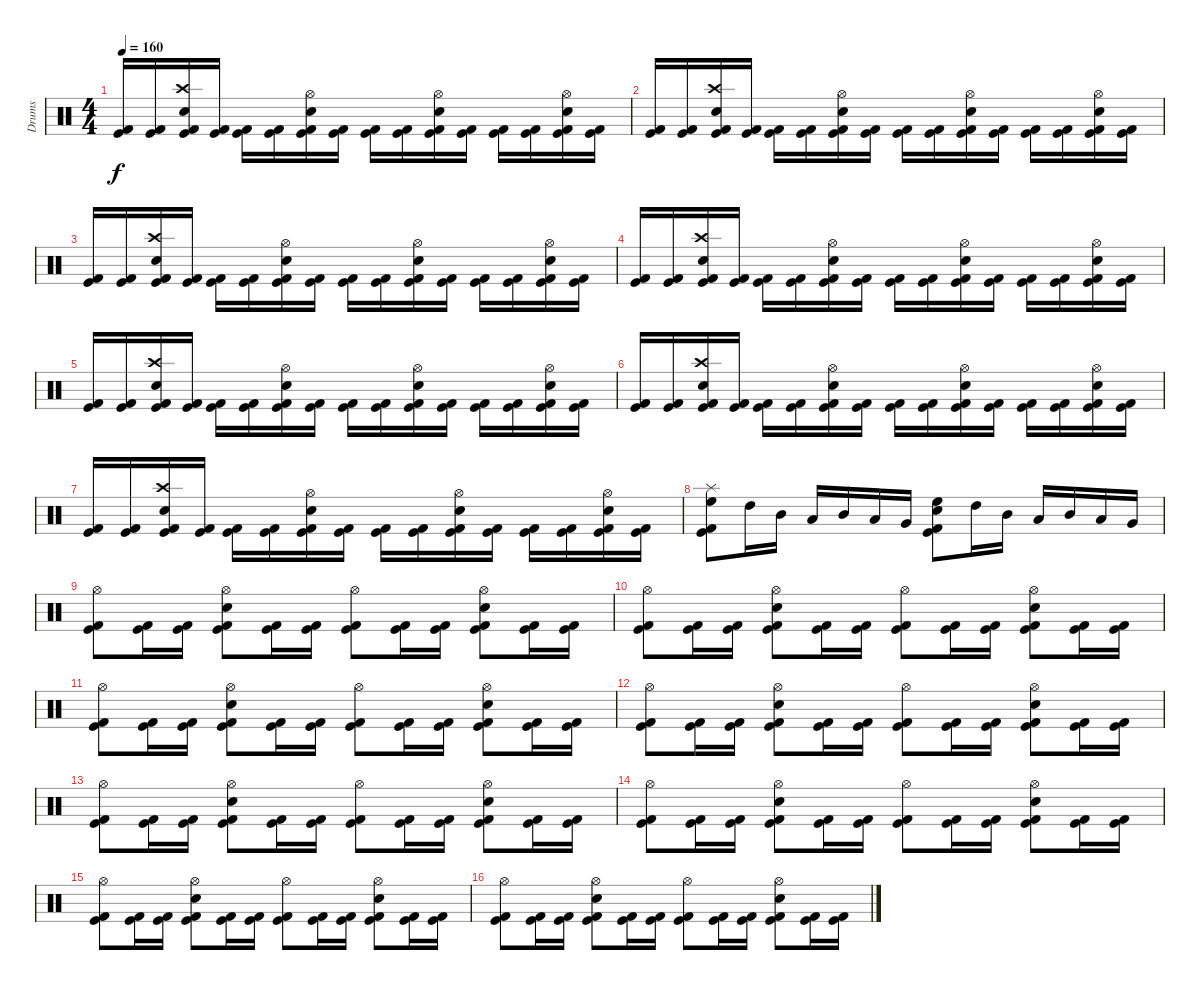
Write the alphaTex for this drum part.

\track ("Drums" "Drums") {instrument percussion}
\staff {score}
\articulation defaults
\ts (4 4)
\tempo 160
\clef neutral
\ks c
("Kick (hit) 2" "Kick (hit)").16{dy f} ("Kick (hit) 2" "Kick (hit)").16 ("Kick (hit) 2" "Kick (hit)" "Crash high (hit)" "Snare (hit) 2").16 ("Kick (hit) 2" "Kick (hit)").16 ("Kick (hit) 2" "Kick (hit)").16 ("Kick (hit) 2" "Kick (hit)").16 ("Kick (hit) 2" "Kick (hit)" "Hi-Hat (open)" "Snare (hit) 2").16 ("Kick (hit) 2" "Kick (hit)").16 ("Kick (hit) 2" "Kick (hit)").16 ("Kick (hit) 2" "Kick (hit)").16 ("Kick (hit) 2" "Kick (hit)" "Hi-Hat (open)" "Snare (hit) 2").16 ("Kick (hit) 2" "Kick (hit)").16 ("Kick (hit) 2" "Kick (hit)").16 ("Kick (hit) 2" "Kick (hit)").16 ("Kick (hit) 2" "Kick (hit)" "Hi-Hat (open)" "Snare (hit) 2").16 ("Kick (hit) 2" "Kick (hit)").16 |
("Kick (hit) 2" "Kick (hit)").16 ("Kick (hit) 2" "Kick (hit)").16 ("Kick (hit) 2" "Kick (hit)" "Crash high (hit)" "Snare (hit) 2").16 ("Kick (hit) 2" "Kick (hit)").16 ("Kick (hit) 2" "Kick (hit)").16 ("Kick (hit) 2" "Kick (hit)").16 ("Kick (hit) 2" "Kick (hit)" "Hi-Hat (open)" "Snare (hit) 2").16 ("Kick (hit) 2" "Kick (hit)").16 ("Kick (hit) 2" "Kick (hit)").16 ("Kick (hit) 2" "Kick (hit)").16 ("Kick (hit) 2" "Kick (hit)" "Hi-Hat (open)" "Snare (hit) 2").16 ("Kick (hit) 2" "Kick (hit)").16 ("Kick (hit) 2" "Kick (hit)").16 ("Kick (hit) 2" "Kick (hit)").16 ("Kick (hit) 2" "Kick (hit)" "Hi-Hat (open)" "Snare (hit) 2").16 ("Kick (hit) 2" "Kick (hit)").16 |
("Kick (hit) 2" "Kick (hit)").16 ("Kick (hit) 2" "Kick (hit)").16 ("Kick (hit) 2" "Kick (hit)" "Crash high (hit)" "Snare (hit) 2").16 ("Kick (hit) 2" "Kick (hit)").16 ("Kick (hit) 2" "Kick (hit)").16 ("Kick (hit) 2" "Kick (hit)").16 ("Kick (hit) 2" "Kick (hit)" "Hi-Hat (open)" "Snare (hit) 2").16 ("Kick (hit) 2" "Kick (hit)").16 ("Kick (hit) 2" "Kick (hit)").16 ("Kick (hit) 2" "Kick (hit)").16 ("Kick (hit) 2" "Kick (hit)" "Hi-Hat (open)" "Snare (hit) 2").16 ("Kick (hit) 2" "Kick (hit)").16 ("Kick (hit) 2" "Kick (hit)").16 ("Kick (hit) 2" "Kick (hit)").16 ("Kick (hit) 2" "Kick (hit)" "Hi-Hat (open)" "Snare (hit) 2").16 ("Kick (hit) 2" "Kick (hit)").16 |
("Kick (hit) 2" "Kick (hit)").16 ("Kick (hit) 2" "Kick (hit)").16 ("Kick (hit) 2" "Kick (hit)" "Crash high (hit)" "Snare (hit) 2").16 ("Kick (hit) 2" "Kick (hit)").16 ("Kick (hit) 2" "Kick (hit)").16 ("Kick (hit) 2" "Kick (hit)").16 ("Kick (hit) 2" "Kick (hit)" "Hi-Hat (open)" "Snare (hit) 2").16 ("Kick (hit) 2" "Kick (hit)").16 ("Kick (hit) 2" "Kick (hit)").16 ("Kick (hit) 2" "Kick (hit)").16 ("Kick (hit) 2" "Kick (hit)" "Hi-Hat (open)" "Snare (hit) 2").16 ("Kick (hit) 2" "Kick (hit)").16 ("Kick (hit) 2" "Kick (hit)").16 ("Kick (hit) 2" "Kick (hit)").16 ("Kick (hit) 2" "Kick (hit)" "Hi-Hat (open)" "Snare (hit) 2").16 ("Kick (hit) 2" "Kick (hit)").16 |
("Kick (hit) 2" "Kick (hit)").16 ("Kick (hit) 2" "Kick (hit)").16 ("Kick (hit) 2" "Kick (hit)" "Crash high (hit)" "Snare (hit) 2").16 ("Kick (hit) 2" "Kick (hit)").16 ("Kick (hit) 2" "Kick (hit)").16 ("Kick (hit) 2" "Kick (hit)").16 ("Kick (hit) 2" "Kick (hit)" "Hi-Hat (open)" "Snare (hit) 2").16 ("Kick (hit) 2" "Kick (hit)").16 ("Kick (hit) 2" "Kick (hit)").16 ("Kick (hit) 2" "Kick (hit)").16 ("Kick (hit) 2" "Kick (hit)" "Hi-Hat (open)" "Snare (hit) 2").16 ("Kick (hit) 2" "Kick (hit)").16 ("Kick (hit) 2" "Kick (hit)").16 ("Kick (hit) 2" "Kick (hit)").16 ("Kick (hit) 2" "Kick (hit)" "Hi-Hat (open)" "Snare (hit) 2").16 ("Kick (hit) 2" "Kick (hit)").16 |
("Kick (hit) 2" "Kick (hit)").16 ("Kick (hit) 2" "Kick (hit)").16 ("Kick (hit) 2" "Kick (hit)" "Crash high (hit)" "Snare (hit) 2").16 ("Kick (hit) 2" "Kick (hit)").16 ("Kick (hit) 2" "Kick (hit)").16 ("Kick (hit) 2" "Kick (hit)").16 ("Kick (hit) 2" "Kick (hit)" "Hi-Hat (open)" "Snare (hit) 2").16 ("Kick (hit) 2" "Kick (hit)").16 ("Kick (hit) 2" "Kick (hit)").16 ("Kick (hit) 2" "Kick (hit)").16 ("Kick (hit) 2" "Kick (hit)" "Hi-Hat (open)" "Snare (hit) 2").16 ("Kick (hit) 2" "Kick (hit)").16 ("Kick (hit) 2" "Kick (hit)").16 ("Kick (hit) 2" "Kick (hit)").16 ("Kick (hit) 2" "Kick (hit)" "Hi-Hat (open)" "Snare (hit) 2").16 ("Kick (hit) 2" "Kick (hit)").16 |
("Kick (hit) 2" "Kick (hit)").16 ("Kick (hit) 2" "Kick (hit)").16 ("Kick (hit) 2" "Kick (hit)" "Crash high (hit)" "Snare (hit) 2").16 ("Kick (hit) 2" "Kick (hit)").16 ("Kick (hit) 2" "Kick (hit)").16 ("Kick (hit) 2" "Kick (hit)").16 ("Kick (hit) 2" "Kick (hit)" "Hi-Hat (open)" "Snare (hit) 2").16 ("Kick (hit) 2" "Kick (hit)").16 ("Kick (hit) 2" "Kick (hit)").16 ("Kick (hit) 2" "Kick (hit)").16 ("Kick (hit) 2" "Kick (hit)" "Hi-Hat (open)" "Snare (hit) 2").16 ("Kick (hit) 2" "Kick (hit)").16 ("Kick (hit) 2" "Kick (hit)").16 ("Kick (hit) 2" "Kick (hit)").16 ("Kick (hit) 2" "Kick (hit)" "Hi-Hat (open)" "Snare (hit) 2").16 ("Kick (hit) 2" "Kick (hit)").16 |
("Kick (hit) 2" "Kick (hit)" "High Floor Tom (hit)" "Splash (hit)").8 "High Tom (hit)".16 "Mid Tom (hit)".16 "Low Tom (hit)".16 "Mid Tom (hit)".16 "Low Tom (hit)".16 "Very Low Tom (hit)".16 ("Kick (hit) 2" "Kick (hit)" "Snare (hit) 2" "High Floor Tom (hit)").8 "High Tom (hit)".16 "Mid Tom (hit)".16 "Low Tom (hit)".16 "Mid Tom (hit)".16 "Low Tom (hit)".16 "Very Low Tom (hit)".16 |
("Kick (hit) 2" "Kick (hit)" "Hi-Hat (open)").8 ("Kick (hit) 2" "Kick (hit)").16 ("Kick (hit) 2" "Kick (hit)").16 ("Kick (hit) 2" "Kick (hit)" "Snare (hit) 2" "Hi-Hat (open)").8 ("Kick (hit) 2" "Kick (hit)").16 ("Kick (hit) 2" "Kick (hit)").16 ("Kick (hit) 2" "Kick (hit)" "Hi-Hat (open)").8 ("Kick (hit) 2" "Kick (hit)").16 ("Kick (hit) 2" "Kick (hit)").16 ("Kick (hit) 2" "Kick (hit)" "Snare (hit) 2" "Hi-Hat (open)").8 ("Kick (hit) 2" "Kick (hit)").16 ("Kick (hit) 2" "Kick (hit)").16 |
("Kick (hit) 2" "Kick (hit)" "Hi-Hat (open)").8 ("Kick (hit) 2" "Kick (hit)").16 ("Kick (hit) 2" "Kick (hit)").16 ("Kick (hit) 2" "Kick (hit)" "Snare (hit) 2" "Hi-Hat (open)").8 ("Kick (hit) 2" "Kick (hit)").16 ("Kick (hit) 2" "Kick (hit)").16 ("Kick (hit) 2" "Kick (hit)" "Hi-Hat (open)").8 ("Kick (hit) 2" "Kick (hit)").16 ("Kick (hit) 2" "Kick (hit)").16 ("Kick (hit) 2" "Kick (hit)" "Snare (hit) 2" "Hi-Hat (open)").8 ("Kick (hit) 2" "Kick (hit)").16 ("Kick (hit) 2" "Kick (hit)").16 |
("Kick (hit) 2" "Kick (hit)" "Hi-Hat (open)").8 ("Kick (hit) 2" "Kick (hit)").16 ("Kick (hit) 2" "Kick (hit)").16 ("Kick (hit) 2" "Kick (hit)" "Snare (hit) 2" "Hi-Hat (open)").8 ("Kick (hit) 2" "Kick (hit)").16 ("Kick (hit) 2" "Kick (hit)").16 ("Kick (hit) 2" "Kick (hit)" "Hi-Hat (open)").8 ("Kick (hit) 2" "Kick (hit)").16 ("Kick (hit) 2" "Kick (hit)").16 ("Kick (hit) 2" "Kick (hit)" "Snare (hit) 2" "Hi-Hat (open)").8 ("Kick (hit) 2" "Kick (hit)").16 ("Kick (hit) 2" "Kick (hit)").16 |
("Kick (hit) 2" "Kick (hit)" "Hi-Hat (open)").8 ("Kick (hit) 2" "Kick (hit)").16 ("Kick (hit) 2" "Kick (hit)").16 ("Kick (hit) 2" "Kick (hit)" "Snare (hit) 2" "Hi-Hat (open)").8 ("Kick (hit) 2" "Kick (hit)").16 ("Kick (hit) 2" "Kick (hit)").16 ("Kick (hit) 2" "Kick (hit)" "Hi-Hat (open)").8 ("Kick (hit) 2" "Kick (hit)").16 ("Kick (hit) 2" "Kick (hit)").16 ("Kick (hit) 2" "Kick (hit)" "Snare (hit) 2" "Hi-Hat (open)").8 ("Kick (hit) 2" "Kick (hit)").16 ("Kick (hit) 2" "Kick (hit)").16 |
("Kick (hit) 2" "Kick (hit)" "Hi-Hat (open)").8 ("Kick (hit) 2" "Kick (hit)").16 ("Kick (hit) 2" "Kick (hit)").16 ("Kick (hit) 2" "Kick (hit)" "Snare (hit) 2" "Hi-Hat (open)").8 ("Kick (hit) 2" "Kick (hit)").16 ("Kick (hit) 2" "Kick (hit)").16 ("Kick (hit) 2" "Kick (hit)" "Hi-Hat (open)").8 ("Kick (hit) 2" "Kick (hit)").16 ("Kick (hit) 2" "Kick (hit)").16 ("Kick (hit) 2" "Kick (hit)" "Snare (hit) 2" "Hi-Hat (open)").8 ("Kick (hit) 2" "Kick (hit)").16 ("Kick (hit) 2" "Kick (hit)").16 |
("Kick (hit) 2" "Kick (hit)" "Hi-Hat (open)").8 ("Kick (hit) 2" "Kick (hit)").16 ("Kick (hit) 2" "Kick (hit)").16 ("Kick (hit) 2" "Kick (hit)" "Snare (hit) 2" "Hi-Hat (open)").8 ("Kick (hit) 2" "Kick (hit)").16 ("Kick (hit) 2" "Kick (hit)").16 ("Kick (hit) 2" "Kick (hit)" "Hi-Hat (open)").8 ("Kick (hit) 2" "Kick (hit)").16 ("Kick (hit) 2" "Kick (hit)").16 ("Kick (hit) 2" "Kick (hit)" "Snare (hit) 2" "Hi-Hat (open)").8 ("Kick (hit) 2" "Kick (hit)").16 ("Kick (hit) 2" "Kick (hit)").16 |
("Kick (hit) 2" "Kick (hit)" "Hi-Hat (open)").8 ("Kick (hit) 2" "Kick (hit)").16 ("Kick (hit) 2" "Kick (hit)").16 ("Kick (hit) 2" "Kick (hit)" "Snare (hit) 2" "Hi-Hat (open)").8 ("Kick (hit) 2" "Kick (hit)").16 ("Kick (hit) 2" "Kick (hit)").16 ("Kick (hit) 2" "Kick (hit)" "Hi-Hat (open)").8 ("Kick (hit) 2" "Kick (hit)").16 ("Kick (hit) 2" "Kick (hit)").16 ("Kick (hit) 2" "Kick (hit)" "Snare (hit) 2" "Hi-Hat (open)").8 ("Kick (hit) 2" "Kick (hit)").16 ("Kick (hit) 2" "Kick (hit)").16 |
("Kick (hit) 2" "Kick (hit)" "Hi-Hat (open)").8 ("Kick (hit) 2" "Kick (hit)").16 ("Kick (hit) 2" "Kick (hit)").16 ("Kick (hit) 2" "Kick (hit)" "Snare (hit) 2" "Hi-Hat (open)").8 ("Kick (hit) 2" "Kick (hit)").16 ("Kick (hit) 2" "Kick (hit)").16 ("Kick (hit) 2" "Kick (hit)" "Hi-Hat (open)").8 ("Kick (hit) 2" "Kick (hit)").16 ("Kick (hit) 2" "Kick (hit)").16 ("Kick (hit) 2" "Kick (hit)" "Snare (hit) 2" "Hi-Hat (open)").8 ("Kick (hit) 2" "Kick (hit)").16 ("Kick (hit) 2" "Kick (hit)").16
